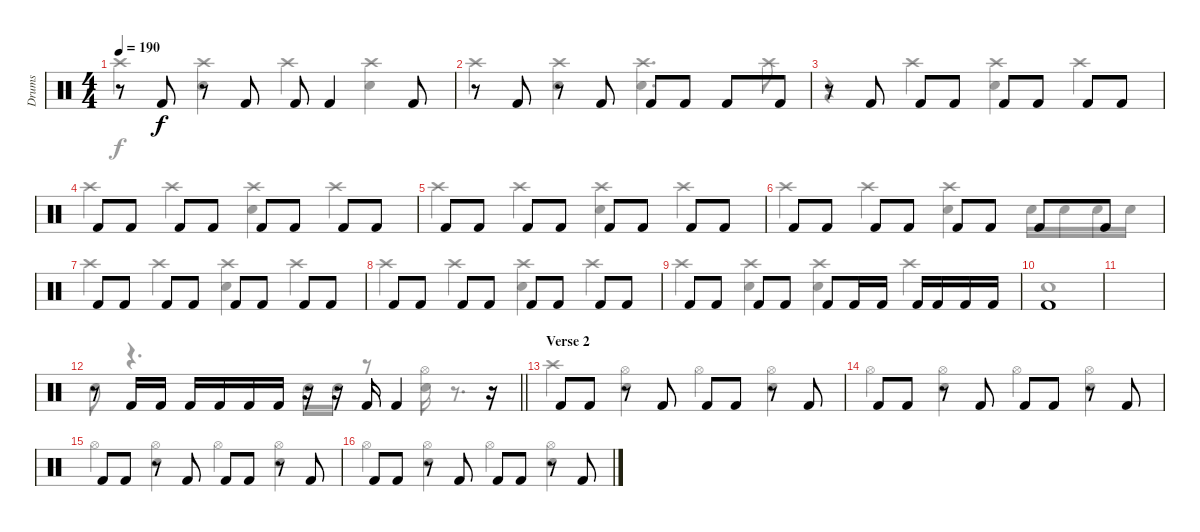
\track ("Drums" "Drums") {instrument percussion}
\staff {score}
\articulation defaults
\voice
\ts (4 4)
\tempo 190
\clef neutral
\ks c
r.8{dy f} "Kick (hit) 2".8 r.8 "Kick (hit) 2".8 "Kick (hit) 2".8 "Kick (hit) 2".4 "Kick (hit) 2".8 |
r.8 "Kick (hit) 2".8 r.8 "Kick (hit) 2".8 "Kick (hit) 2".8 "Kick (hit) 2".8 "Kick (hit) 2".8 "Kick (hit) 2".8 |
r.8 "Kick (hit) 2".8 "Kick (hit) 2".8 "Kick (hit) 2".8 "Kick (hit) 2".8 "Kick (hit) 2".8 "Kick (hit) 2".8 "Kick (hit) 2".8 |
"Kick (hit) 2".8 "Kick (hit) 2".8 "Kick (hit) 2".8 "Kick (hit) 2".8 "Kick (hit) 2".8 "Kick (hit) 2".8 "Kick (hit) 2".8 "Kick (hit) 2".8 |
"Kick (hit) 2".8 "Kick (hit) 2".8 "Kick (hit) 2".8 "Kick (hit) 2".8 "Kick (hit) 2".8 "Kick (hit) 2".8 "Kick (hit) 2".8 "Kick (hit) 2".8 |
"Kick (hit) 2".8 "Kick (hit) 2".8 "Kick (hit) 2".8 "Kick (hit) 2".8 "Kick (hit) 2".8 "Kick (hit) 2".8 "Kick (hit) 2".8 "Kick (hit) 2".8 |
"Kick (hit) 2".8 "Kick (hit) 2".8 "Kick (hit) 2".8 "Kick (hit) 2".8 "Kick (hit) 2".8 "Kick (hit) 2".8 "Kick (hit) 2".8 "Kick (hit) 2".8 |
"Kick (hit) 2".8 "Kick (hit) 2".8 "Kick (hit) 2".8 "Kick (hit) 2".8 "Kick (hit) 2".8 "Kick (hit) 2".8 "Kick (hit) 2".8 "Kick (hit) 2".8 |
"Kick (hit) 2".8 "Kick (hit) 2".8 "Kick (hit) 2".8 "Kick (hit) 2".8 "Kick (hit) 2".8 "Kick (hit) 2".16 "Kick (hit) 2".16 "Kick (hit) 2".16 "Kick (hit) 2".16 "Kick (hit) 2".16 "Kick (hit) 2".16 |
"Kick (hit) 2".1 |
|
\barLineRight lightlight
r.8 "Kick (hit) 2".16 "Kick (hit) 2".16 "Kick (hit) 2".16 "Kick (hit) 2".16 "Kick (hit) 2".16 "Kick (hit) 2".16 r.16 r.16 "Kick (hit) 2".16 "Kick (hit) 2".4 r.16 |
\section ("" "Verse 2")
"Kick (hit) 2".8 "Kick (hit) 2".8 r.8 "Kick (hit) 2".8 "Kick (hit) 2".8 "Kick (hit) 2".8 r.8 "Kick (hit) 2".8 |
"Kick (hit) 2".8 "Kick (hit) 2".8 r.8 "Kick (hit) 2".8 "Kick (hit) 2".8 "Kick (hit) 2".8 r.8 "Kick (hit) 2".8 |
"Kick (hit) 2".8 "Kick (hit) 2".8 r.8 "Kick (hit) 2".8 "Kick (hit) 2".8 "Kick (hit) 2".8 r.8 "Kick (hit) 2".8 |
"Kick (hit) 2".8 "Kick (hit) 2".8 r.8 "Kick (hit) 2".8 "Kick (hit) 2".8 "Kick (hit) 2".8 r.8 "Kick (hit) 2".8
\voice
\clef neutral
\ottava regular
\simile none
\ks c "Crash high (hit)".4{dy f}
("Electric Snare (hit)" "Crash high (hit)").4 "Crash high (hit)".4 ("Electric Snare (hit)" "Crash high (hit)").4 |
"Crash high (hit)".4 ("Electric Snare (hit)" "Crash high (hit)").4 ("Electric Snare (hit)" "Crash high (hit)").4{d} "Crash high (hit)".8 |
r.4 "Crash high (hit)".4 ("Electric Snare (hit)" "Crash high (hit)").4 "Crash high (hit)".4 |
"Crash high (hit)".4 "Crash high (hit)".4 ("Electric Snare (hit)" "Crash high (hit)").4 "Crash high (hit)".4 |
"Crash high (hit)".4 "Crash high (hit)".4 ("Electric Snare (hit)" "Crash high (hit)").4 "Crash high (hit)".4 |
"Crash high (hit)".4 "Crash high (hit)".4 ("Electric Snare (hit)" "Crash high (hit)").4 "Electric Snare (hit)".16 "Electric Snare (hit)".16 "Electric Snare (hit)".16 "Electric Snare (hit)".16 |
"Crash high (hit)".4 "Crash high (hit)".4 ("Electric Snare (hit)" "Crash high (hit)").4 "Crash high (hit)".4 |
"Crash high (hit)".4 "Crash high (hit)".4 ("Electric Snare (hit)" "Crash high (hit)").4 "Crash high (hit)".4 |
"Crash high (hit)".4 ("Electric Snare (hit)" "Crash high (hit)").4 ("Electric Snare (hit)" "Crash high (hit)").4 "Crash high (hit)".4 |
"Electric Snare (hit)".1 |
|
\barLineRight lightlight "Electric Snare (hit)".8
r.4{d} "Electric Snare (hit)".16 "Electric Snare (hit)".16 r.8 ("Electric Snare (hit)" "Hi-Hat (open)").16 r.8{d} |
"Crash high (hit)".4 ("Electric Snare (hit)" "Hi-Hat (open)").4 "Hi-Hat (open)".4 ("Electric Snare (hit)" "Hi-Hat (open)").4 |
"Hi-Hat (open)".4 ("Electric Snare (hit)" "Hi-Hat (open)").4 "Hi-Hat (open)".4 ("Electric Snare (hit)" "Hi-Hat (open)").4 |
"Hi-Hat (open)".4 ("Electric Snare (hit)" "Hi-Hat (open)").4 "Hi-Hat (open)".4 ("Electric Snare (hit)" "Hi-Hat (open)").4 |
"Hi-Hat (open)".4 ("Electric Snare (hit)" "Hi-Hat (open)").4 "Hi-Hat (open)".4 ("Electric Snare (hit)" "Hi-Hat (open)").4
